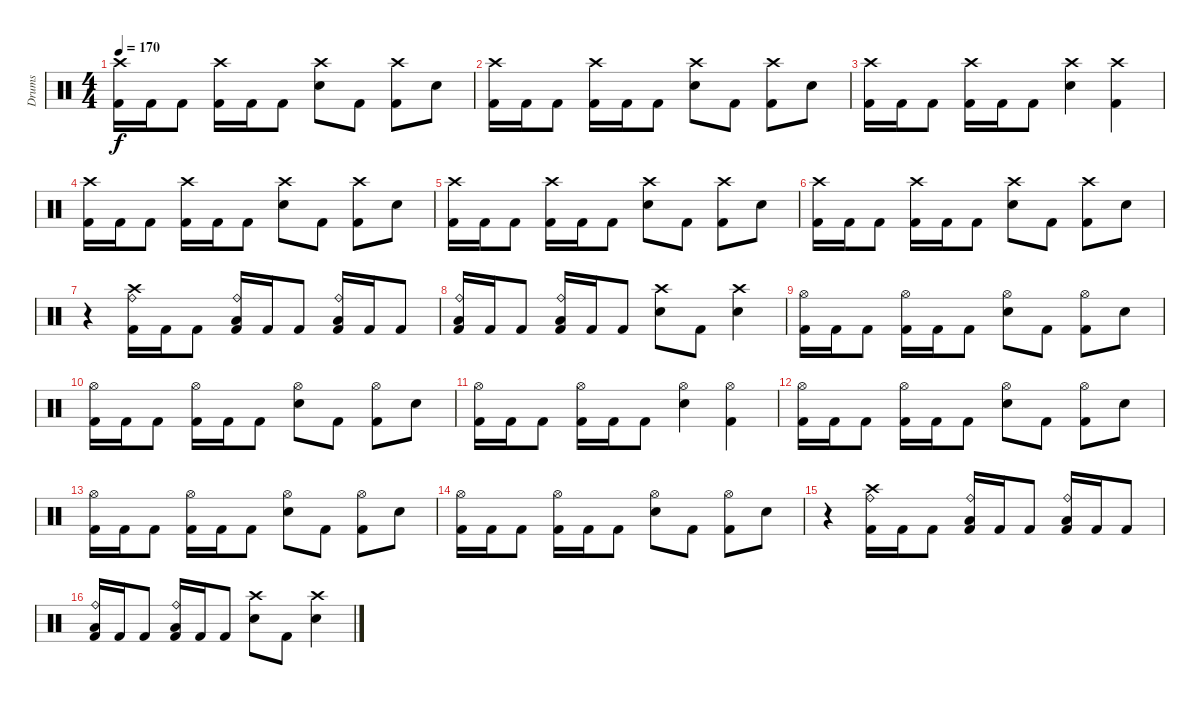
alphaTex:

\track ("Drums" "Drums") {instrument percussion}
\staff {score}
\articulation defaults
\ts (4 4)
\tempo 170
\clef neutral
\ks c
("Crash high (hit)" "Kick (hit) 2").16{dy f} "Kick (hit) 2".16 "Kick (hit) 2".8 ("Crash high (hit)" "Kick (hit) 2").16 "Kick (hit) 2".16 "Kick (hit) 2".8 ("Crash high (hit)" "Electric Snare (hit)").8 "Kick (hit) 2".8 ("Crash high (hit)" "Kick (hit) 2").8 "Electric Snare (hit)".8 |
("Crash high (hit)" "Kick (hit) 2").16 "Kick (hit) 2".16 "Kick (hit) 2".8 ("Crash high (hit)" "Kick (hit) 2").16 "Kick (hit) 2".16 "Kick (hit) 2".8 ("Crash high (hit)" "Electric Snare (hit)").8 "Kick (hit) 2".8 ("Crash high (hit)" "Kick (hit) 2").8 "Electric Snare (hit)".8 |
("Crash high (hit)" "Kick (hit) 2").16 "Kick (hit) 2".16 "Kick (hit) 2".8 ("Crash high (hit)" "Kick (hit) 2").16 "Kick (hit) 2".16 "Kick (hit) 2".8 ("Crash high (hit)" "Electric Snare (hit)").4 ("Crash high (hit)" "Kick (hit) 2").4 |
("Crash high (hit)" "Kick (hit) 2").16 "Kick (hit) 2".16 "Kick (hit) 2".8 ("Crash high (hit)" "Kick (hit) 2").16 "Kick (hit) 2".16 "Kick (hit) 2".8 ("Crash high (hit)" "Electric Snare (hit)").8 "Kick (hit) 2".8 ("Crash high (hit)" "Kick (hit) 2").8 "Electric Snare (hit)".8 |
("Crash high (hit)" "Kick (hit) 2").16 "Kick (hit) 2".16 "Kick (hit) 2".8 ("Crash high (hit)" "Kick (hit) 2").16 "Kick (hit) 2".16 "Kick (hit) 2".8 ("Crash high (hit)" "Electric Snare (hit)").8 "Kick (hit) 2".8 ("Crash high (hit)" "Kick (hit) 2").8 "Electric Snare (hit)".8 |
("Crash high (hit)" "Kick (hit) 2").16 "Kick (hit) 2".16 "Kick (hit) 2".8 ("Crash high (hit)" "Kick (hit) 2").16 "Kick (hit) 2".16 "Kick (hit) 2".8 ("Crash high (hit)" "Electric Snare (hit)").8 "Kick (hit) 2".8 ("Crash high (hit)" "Kick (hit) 2").8 "Electric Snare (hit)".8 |
r.4 ("Crash high (hit)" "Ride (bell)" "Kick (hit) 2").16 "Kick (hit) 2".16 "Kick (hit) 2".8 ("Ride (bell)" "Low Floor Tom (hit)" "Kick (hit) 2").16 "Kick (hit) 2".16 "Kick (hit) 2".8 ("Ride (bell)" "Low Floor Tom (hit)" "Kick (hit) 2").16 "Kick (hit) 2".16 "Kick (hit) 2".8 |
("Ride (bell)" "Low Floor Tom (hit)" "Kick (hit) 2").16 "Kick (hit) 2".16 "Kick (hit) 2".8 ("Ride (bell)" "Low Floor Tom (hit)" "Kick (hit) 2").16 "Kick (hit) 2".16 "Kick (hit) 2".8 ("Crash high (hit)" "Electric Snare (hit)").8 "Kick (hit) 2".8 ("Crash high (hit)" "Electric Snare (hit)").4 |
("Hi-Hat (open)" "Kick (hit) 2").16 "Kick (hit) 2".16 "Kick (hit) 2".8 ("Hi-Hat (open)" "Kick (hit) 2").16 "Kick (hit) 2".16 "Kick (hit) 2".8 ("Hi-Hat (open)" "Electric Snare (hit)").8 "Kick (hit) 2".8 ("Hi-Hat (open)" "Kick (hit) 2").8 "Electric Snare (hit)".8 |
("Hi-Hat (open)" "Kick (hit) 2").16 "Kick (hit) 2".16 "Kick (hit) 2".8 ("Hi-Hat (open)" "Kick (hit) 2").16 "Kick (hit) 2".16 "Kick (hit) 2".8 ("Hi-Hat (open)" "Electric Snare (hit)").8 "Kick (hit) 2".8 ("Hi-Hat (open)" "Kick (hit) 2").8 "Electric Snare (hit)".8 |
("Hi-Hat (open)" "Kick (hit) 2").16 "Kick (hit) 2".16 "Kick (hit) 2".8 ("Hi-Hat (open)" "Kick (hit) 2").16 "Kick (hit) 2".16 "Kick (hit) 2".8 ("Hi-Hat (open)" "Electric Snare (hit)").4 ("Hi-Hat (open)" "Kick (hit) 2").4 |
("Hi-Hat (open)" "Kick (hit) 2").16 "Kick (hit) 2".16 "Kick (hit) 2".8 ("Hi-Hat (open)" "Kick (hit) 2").16 "Kick (hit) 2".16 "Kick (hit) 2".8 ("Hi-Hat (open)" "Electric Snare (hit)").8 "Kick (hit) 2".8 ("Hi-Hat (open)" "Kick (hit) 2").8 "Electric Snare (hit)".8 |
("Hi-Hat (open)" "Kick (hit) 2").16 "Kick (hit) 2".16 "Kick (hit) 2".8 ("Hi-Hat (open)" "Kick (hit) 2").16 "Kick (hit) 2".16 "Kick (hit) 2".8 ("Hi-Hat (open)" "Electric Snare (hit)").8 "Kick (hit) 2".8 ("Hi-Hat (open)" "Kick (hit) 2").8 "Electric Snare (hit)".8 |
("Hi-Hat (open)" "Kick (hit) 2").16 "Kick (hit) 2".16 "Kick (hit) 2".8 ("Hi-Hat (open)" "Kick (hit) 2").16 "Kick (hit) 2".16 "Kick (hit) 2".8 ("Hi-Hat (open)" "Electric Snare (hit)").8 "Kick (hit) 2".8 ("Hi-Hat (open)" "Kick (hit) 2").8 "Electric Snare (hit)".8 |
r.4 ("Crash high (hit)" "Ride (bell)" "Kick (hit) 2").16 "Kick (hit) 2".16 "Kick (hit) 2".8 ("Ride (bell)" "Low Floor Tom (hit)" "Kick (hit) 2").16 "Kick (hit) 2".16 "Kick (hit) 2".8 ("Ride (bell)" "Low Floor Tom (hit)" "Kick (hit) 2").16 "Kick (hit) 2".16 "Kick (hit) 2".8 |
("Ride (bell)" "Low Floor Tom (hit)" "Kick (hit) 2").16 "Kick (hit) 2".16 "Kick (hit) 2".8 ("Ride (bell)" "Low Floor Tom (hit)" "Kick (hit) 2").16 "Kick (hit) 2".16 "Kick (hit) 2".8 ("Crash high (hit)" "Electric Snare (hit)").8 "Kick (hit) 2".8 ("Crash high (hit)" "Electric Snare (hit)").4
